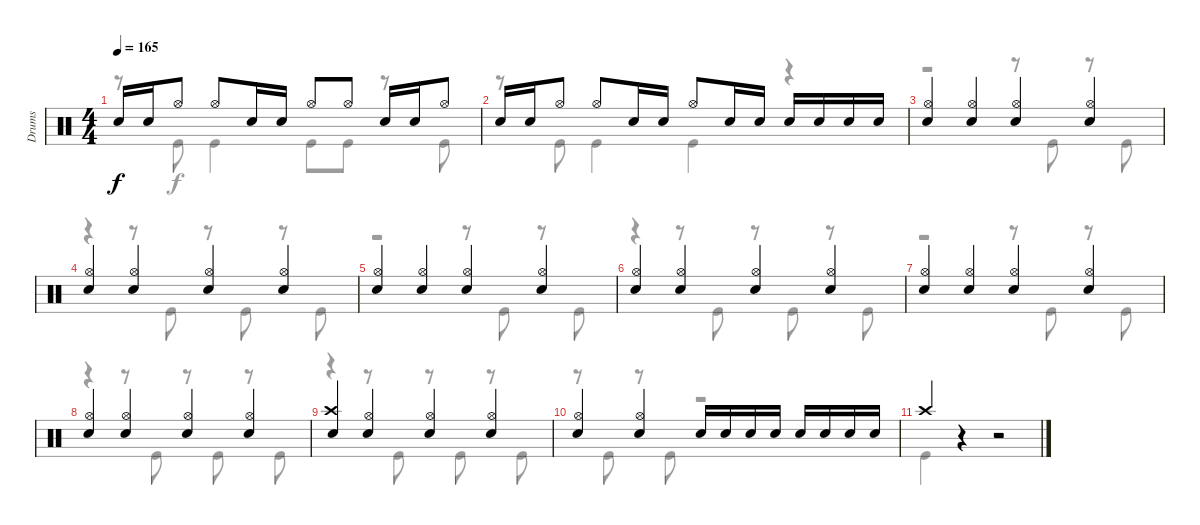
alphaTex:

\track ("Drums" "Drums") {instrument percussion}
\staff {score}
\articulation defaults
\voice
\ts (4 4)
\tempo 165
\clef neutral
\ks c "Snare (hit) 2".16{dy f beam Up} "Snare (hit) 2".16{beam Up} "Hi-Hat (open)".8{beam Up} "Hi-Hat (open)".8{beam Up} "Snare (hit) 2".16{beam Up} "Snare (hit) 2".16{beam Up} "Hi-Hat (open)".8{beam Up} "Hi-Hat (open)".8{beam Up} "Snare (hit) 2".16{beam Up} "Snare (hit) 2".16{beam Up} "Hi-Hat (open)".8{beam Up}
|
"Snare (hit) 2".16{beam Up} "Snare (hit) 2".16{beam Up} "Hi-Hat (open)".8{beam Up} "Hi-Hat (open)".8{beam Up} "Snare (hit) 2".16{beam Up} "Snare (hit) 2".16{beam Up} "Hi-Hat (open)".8{beam Up} "Snare (hit) 2".16{beam Up} "Snare (hit) 2".16{beam Up} "Snare (hit) 2".16{beam Up} "Snare (hit) 2".16{beam Up} "Snare (hit) 2".16{beam Up} "Snare (hit) 2".16{beam Up} |
("Hi-Hat (open)" "Snare (hit) 2").4{beam Up} ("Hi-Hat (open)" "Snare (hit) 2").4{beam Up} ("Hi-Hat (open)" "Snare (hit) 2").4{beam Up} ("Hi-Hat (open)" "Snare (hit) 2").4{beam Up} |
("Hi-Hat (open)" "Snare (hit) 2").4{beam Up} ("Hi-Hat (open)" "Snare (hit) 2").4{beam Up} ("Hi-Hat (open)" "Snare (hit) 2").4{beam Up} ("Hi-Hat (open)" "Snare (hit) 2").4{beam Up} |
("Hi-Hat (open)" "Snare (hit) 2").4{beam Up} ("Hi-Hat (open)" "Snare (hit) 2").4{beam Up} ("Hi-Hat (open)" "Snare (hit) 2").4{beam Up} ("Hi-Hat (open)" "Snare (hit) 2").4{beam Up} |
("Hi-Hat (open)" "Snare (hit) 2").4{beam Up} ("Hi-Hat (open)" "Snare (hit) 2").4{beam Up} ("Hi-Hat (open)" "Snare (hit) 2").4{beam Up} ("Hi-Hat (open)" "Snare (hit) 2").4{beam Up} |
("Hi-Hat (open)" "Snare (hit) 2").4{beam Up} ("Hi-Hat (open)" "Snare (hit) 2").4{beam Up} ("Hi-Hat (open)" "Snare (hit) 2").4{beam Up} ("Hi-Hat (open)" "Snare (hit) 2").4{beam Up} |
("Hi-Hat (open)" "Snare (hit) 2").4{beam Up} ("Hi-Hat (open)" "Snare (hit) 2").4{beam Up} ("Hi-Hat (open)" "Snare (hit) 2").4{beam Up} ("Hi-Hat (open)" "Snare (hit) 2").4{beam Up} |
("Crash high (hit)" "Snare (hit) 2").4{beam Up} ("Hi-Hat (open)" "Snare (hit) 2").4{beam Up} ("Hi-Hat (open)" "Snare (hit) 2").4{beam Up} ("Hi-Hat (open)" "Snare (hit) 2").4{beam Up} |
("Hi-Hat (open)" "Snare (hit) 2").4{beam Up} ("Hi-Hat (open)" "Snare (hit) 2").4{beam Up} "Snare (hit) 2".16{beam Up} "Snare (hit) 2".16{beam Up} "Snare (hit) 2".16{beam Up} "Snare (hit) 2".16{beam Up} "Snare (hit) 2".16{beam Up} "Snare (hit) 2".16{beam Up} "Snare (hit) 2".16{beam Up} "Snare (hit) 2".16{beam Up} |
"Crash high (hit)".4{beam Up} r.4 r.2
\voice
\clef neutral
\ottava regular
\simile none
\ks c
r.8{dy f} "Kick (hit)".8 "Kick (hit)".4 "Kick (hit)".8 "Kick (hit)".8 r.8 "Kick (hit)".8 |
r.8 "Kick (hit)".8 "Kick (hit)".4 "Kick (hit)".4 r.4 |
r.2 r.8 "Kick (hit)".8 r.8 "Kick (hit)".8 |
r.4 r.8 "Kick (hit)".8 r.8 "Kick (hit)".8 r.8 "Kick (hit)".8 |
r.2 r.8 "Kick (hit)".8 r.8 "Kick (hit)".8 |
r.4 r.8 "Kick (hit)".8 r.8 "Kick (hit)".8 r.8 "Kick (hit)".8 |
r.2 r.8 "Kick (hit)".8 r.8 "Kick (hit)".8 |
r.4 r.8 "Kick (hit)".8 r.8 "Kick (hit)".8 r.8 "Kick (hit)".8 |
r.4 r.8 "Kick (hit)".8 r.8 "Kick (hit)".8 r.8 "Kick (hit)".8 |
r.8 "Kick (hit)".8 r.8 "Kick (hit)".8 r.2 |
"Kick (hit)".4 r.4 r.2
